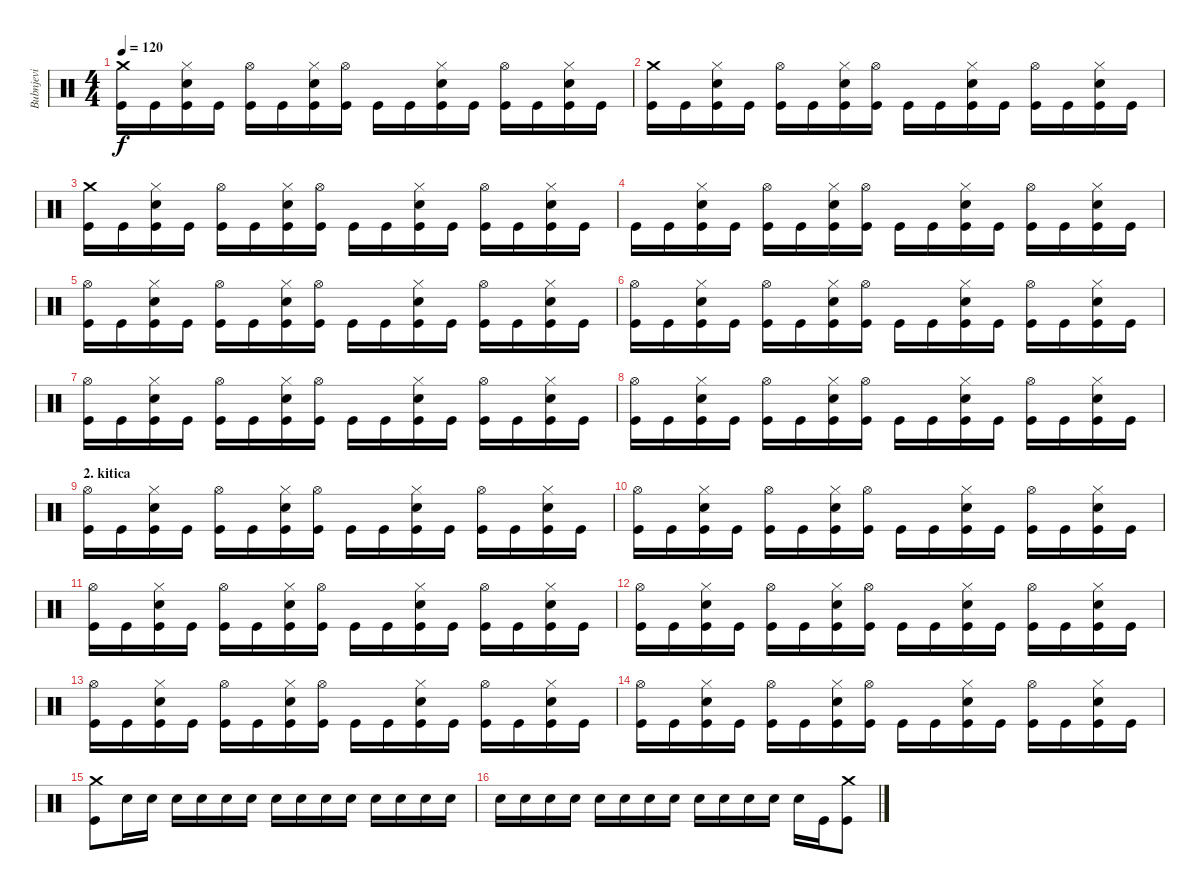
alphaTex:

\track ("Bubnjevi" "Bubnjevi") {instrument percussion}
\staff {score}
\articulation defaults
\ts (4 4)
\tempo 120
\clef neutral
\ks c
("Crash medium (hit)" "Kick (hit)").16{dy f} "Kick (hit)".16 ("Electric Snare (hit)" "Hi-Hat (closed)" "Kick (hit)").16 "Kick (hit)".16 ("Hi-Hat (open)" "Kick (hit)").16 "Kick (hit)".16 ("Electric Snare (hit)" "Hi-Hat (closed)" "Kick (hit)").16 ("Hi-Hat (open)" "Kick (hit)").16 "Kick (hit)".16 "Kick (hit)".16 ("Electric Snare (hit)" "Hi-Hat (closed)" "Kick (hit)").16 "Kick (hit)".16 ("Hi-Hat (open)" "Kick (hit)").16 "Kick (hit)".16 ("Electric Snare (hit)" "Hi-Hat (closed)" "Kick (hit)").16 "Kick (hit)".16 |
("Crash medium (hit)" "Kick (hit)").16 "Kick (hit)".16 ("Electric Snare (hit)" "Hi-Hat (closed)" "Kick (hit)").16 "Kick (hit)".16 ("Hi-Hat (open)" "Kick (hit)").16 "Kick (hit)".16 ("Electric Snare (hit)" "Hi-Hat (closed)" "Kick (hit)").16 ("Hi-Hat (open)" "Kick (hit)").16 "Kick (hit)".16 "Kick (hit)".16 ("Electric Snare (hit)" "Hi-Hat (closed)" "Kick (hit)").16 "Kick (hit)".16 ("Hi-Hat (open)" "Kick (hit)").16 "Kick (hit)".16 ("Electric Snare (hit)" "Hi-Hat (closed)" "Kick (hit)").16 "Kick (hit)".16 |
("Crash medium (hit)" "Kick (hit)").16 "Kick (hit)".16 ("Electric Snare (hit)" "Hi-Hat (closed)" "Kick (hit)").16 "Kick (hit)".16 ("Hi-Hat (open)" "Kick (hit)").16 "Kick (hit)".16 ("Electric Snare (hit)" "Hi-Hat (closed)" "Kick (hit)").16 ("Hi-Hat (open)" "Kick (hit)").16 "Kick (hit)".16 "Kick (hit)".16 ("Electric Snare (hit)" "Hi-Hat (closed)" "Kick (hit)").16 "Kick (hit)".16 ("Hi-Hat (open)" "Kick (hit)").16 "Kick (hit)".16 ("Electric Snare (hit)" "Hi-Hat (closed)" "Kick (hit)").16 "Kick (hit)".16 |
"Kick (hit)".16 "Kick (hit)".16 ("Electric Snare (hit)" "Hi-Hat (closed)" "Kick (hit)").16 "Kick (hit)".16 ("Hi-Hat (open)" "Kick (hit)").16 "Kick (hit)".16 ("Electric Snare (hit)" "Hi-Hat (closed)" "Kick (hit)").16 ("Hi-Hat (open)" "Kick (hit)").16 "Kick (hit)".16 "Kick (hit)".16 ("Electric Snare (hit)" "Hi-Hat (closed)" "Kick (hit)").16 "Kick (hit)".16 ("Hi-Hat (open)" "Kick (hit)").16 "Kick (hit)".16 ("Electric Snare (hit)" "Hi-Hat (closed)" "Kick (hit)").16 "Kick (hit)".16 |
("Hi-Hat (open)" "Kick (hit)").16 "Kick (hit)".16 ("Electric Snare (hit)" "Hi-Hat (closed)" "Kick (hit)").16 "Kick (hit)".16 ("Hi-Hat (open)" "Kick (hit)").16 "Kick (hit)".16 ("Electric Snare (hit)" "Hi-Hat (closed)" "Kick (hit)").16 ("Hi-Hat (open)" "Kick (hit)").16 "Kick (hit)".16 "Kick (hit)".16 ("Electric Snare (hit)" "Hi-Hat (closed)" "Kick (hit)").16 "Kick (hit)".16 ("Hi-Hat (open)" "Kick (hit)").16 "Kick (hit)".16 ("Electric Snare (hit)" "Hi-Hat (closed)" "Kick (hit)").16 "Kick (hit)".16 |
("Hi-Hat (open)" "Kick (hit)").16 "Kick (hit)".16 ("Electric Snare (hit)" "Hi-Hat (closed)" "Kick (hit)").16 "Kick (hit)".16 ("Hi-Hat (open)" "Kick (hit)").16 "Kick (hit)".16 ("Electric Snare (hit)" "Hi-Hat (closed)" "Kick (hit)").16 ("Hi-Hat (open)" "Kick (hit)").16 "Kick (hit)".16 "Kick (hit)".16 ("Electric Snare (hit)" "Hi-Hat (closed)" "Kick (hit)").16 "Kick (hit)".16 ("Hi-Hat (open)" "Kick (hit)").16 "Kick (hit)".16 ("Electric Snare (hit)" "Hi-Hat (closed)" "Kick (hit)").16 "Kick (hit)".16 |
("Hi-Hat (open)" "Kick (hit)").16 "Kick (hit)".16 ("Electric Snare (hit)" "Hi-Hat (closed)" "Kick (hit)").16 "Kick (hit)".16 ("Hi-Hat (open)" "Kick (hit)").16 "Kick (hit)".16 ("Electric Snare (hit)" "Hi-Hat (closed)" "Kick (hit)").16 ("Hi-Hat (open)" "Kick (hit)").16 "Kick (hit)".16 "Kick (hit)".16 ("Electric Snare (hit)" "Hi-Hat (closed)" "Kick (hit)").16 "Kick (hit)".16 ("Hi-Hat (open)" "Kick (hit)").16 "Kick (hit)".16 ("Electric Snare (hit)" "Hi-Hat (closed)" "Kick (hit)").16 "Kick (hit)".16 |
("Hi-Hat (open)" "Kick (hit)").16 "Kick (hit)".16 ("Electric Snare (hit)" "Hi-Hat (closed)" "Kick (hit)").16 "Kick (hit)".16 ("Hi-Hat (open)" "Kick (hit)").16 "Kick (hit)".16 ("Electric Snare (hit)" "Hi-Hat (closed)" "Kick (hit)").16 ("Hi-Hat (open)" "Kick (hit)").16 "Kick (hit)".16 "Kick (hit)".16 ("Electric Snare (hit)" "Hi-Hat (closed)" "Kick (hit)").16 "Kick (hit)".16 ("Hi-Hat (open)" "Kick (hit)").16 "Kick (hit)".16 ("Electric Snare (hit)" "Hi-Hat (closed)" "Kick (hit)").16 "Kick (hit)".16 |
\section ("" "2. kitica")
("Hi-Hat (open)" "Kick (hit)").16 "Kick (hit)".16 ("Electric Snare (hit)" "Hi-Hat (closed)" "Kick (hit)").16 "Kick (hit)".16 ("Hi-Hat (open)" "Kick (hit)").16 "Kick (hit)".16 ("Electric Snare (hit)" "Hi-Hat (closed)" "Kick (hit)").16 ("Hi-Hat (open)" "Kick (hit)").16 "Kick (hit)".16 "Kick (hit)".16 ("Electric Snare (hit)" "Hi-Hat (closed)" "Kick (hit)").16 "Kick (hit)".16 ("Hi-Hat (open)" "Kick (hit)").16 "Kick (hit)".16 ("Electric Snare (hit)" "Hi-Hat (closed)" "Kick (hit)").16 "Kick (hit)".16 |
("Hi-Hat (open)" "Kick (hit)").16 "Kick (hit)".16 ("Electric Snare (hit)" "Hi-Hat (closed)" "Kick (hit)").16 "Kick (hit)".16 ("Hi-Hat (open)" "Kick (hit)").16 "Kick (hit)".16 ("Electric Snare (hit)" "Hi-Hat (closed)" "Kick (hit)").16 ("Hi-Hat (open)" "Kick (hit)").16 "Kick (hit)".16 "Kick (hit)".16 ("Electric Snare (hit)" "Hi-Hat (closed)" "Kick (hit)").16 "Kick (hit)".16 ("Hi-Hat (open)" "Kick (hit)").16 "Kick (hit)".16 ("Electric Snare (hit)" "Hi-Hat (closed)" "Kick (hit)").16 "Kick (hit)".16 |
("Hi-Hat (open)" "Kick (hit)").16 "Kick (hit)".16 ("Electric Snare (hit)" "Hi-Hat (closed)" "Kick (hit)").16 "Kick (hit)".16 ("Hi-Hat (open)" "Kick (hit)").16 "Kick (hit)".16 ("Electric Snare (hit)" "Hi-Hat (closed)" "Kick (hit)").16 ("Hi-Hat (open)" "Kick (hit)").16 "Kick (hit)".16 "Kick (hit)".16 ("Electric Snare (hit)" "Hi-Hat (closed)" "Kick (hit)").16 "Kick (hit)".16 ("Hi-Hat (open)" "Kick (hit)").16 "Kick (hit)".16 ("Electric Snare (hit)" "Hi-Hat (closed)" "Kick (hit)").16 "Kick (hit)".16 |
("Hi-Hat (open)" "Kick (hit)").16 "Kick (hit)".16 ("Electric Snare (hit)" "Hi-Hat (closed)" "Kick (hit)").16 "Kick (hit)".16 ("Hi-Hat (open)" "Kick (hit)").16 "Kick (hit)".16 ("Electric Snare (hit)" "Hi-Hat (closed)" "Kick (hit)").16 ("Hi-Hat (open)" "Kick (hit)").16 "Kick (hit)".16 "Kick (hit)".16 ("Electric Snare (hit)" "Hi-Hat (closed)" "Kick (hit)").16 "Kick (hit)".16 ("Hi-Hat (open)" "Kick (hit)").16 "Kick (hit)".16 ("Electric Snare (hit)" "Hi-Hat (closed)" "Kick (hit)").16 "Kick (hit)".16 |
("Hi-Hat (open)" "Kick (hit)").16 "Kick (hit)".16 ("Electric Snare (hit)" "Hi-Hat (closed)" "Kick (hit)").16 "Kick (hit)".16 ("Hi-Hat (open)" "Kick (hit)").16 "Kick (hit)".16 ("Electric Snare (hit)" "Hi-Hat (closed)" "Kick (hit)").16 ("Hi-Hat (open)" "Kick (hit)").16 "Kick (hit)".16 "Kick (hit)".16 ("Electric Snare (hit)" "Hi-Hat (closed)" "Kick (hit)").16 "Kick (hit)".16 ("Hi-Hat (open)" "Kick (hit)").16 "Kick (hit)".16 ("Electric Snare (hit)" "Hi-Hat (closed)" "Kick (hit)").16 "Kick (hit)".16 |
("Hi-Hat (open)" "Kick (hit)").16 "Kick (hit)".16 ("Electric Snare (hit)" "Hi-Hat (closed)" "Kick (hit)").16 "Kick (hit)".16 ("Hi-Hat (open)" "Kick (hit)").16 "Kick (hit)".16 ("Electric Snare (hit)" "Hi-Hat (closed)" "Kick (hit)").16 ("Hi-Hat (open)" "Kick (hit)").16 "Kick (hit)".16 "Kick (hit)".16 ("Electric Snare (hit)" "Hi-Hat (closed)" "Kick (hit)").16 "Kick (hit)".16 ("Hi-Hat (open)" "Kick (hit)").16 "Kick (hit)".16 ("Electric Snare (hit)" "Hi-Hat (closed)" "Kick (hit)").16 "Kick (hit)".16 |
("Crash medium (hit)" "Kick (hit)").8 "Electric Snare (hit)".16 "Electric Snare (hit)".16 "Electric Snare (hit)".16 "Electric Snare (hit)".16 "Electric Snare (hit)".16 "Electric Snare (hit)".16 "Electric Snare (hit)".16 "Electric Snare (hit)".16 "Electric Snare (hit)".16 "Electric Snare (hit)".16 "Electric Snare (hit)".16 "Electric Snare (hit)".16 "Electric Snare (hit)".16 "Electric Snare (hit)".16 |
"Electric Snare (hit)".16 "Electric Snare (hit)".16 "Electric Snare (hit)".16 "Electric Snare (hit)".16 "Electric Snare (hit)".16 "Electric Snare (hit)".16 "Electric Snare (hit)".16 "Electric Snare (hit)".16 "Electric Snare (hit)".16 "Electric Snare (hit)".16 "Electric Snare (hit)".16 "Electric Snare (hit)".16 "Electric Snare (hit)".16 "Kick (hit)".16 ("Crash medium (hit)" "Kick (hit)").8
